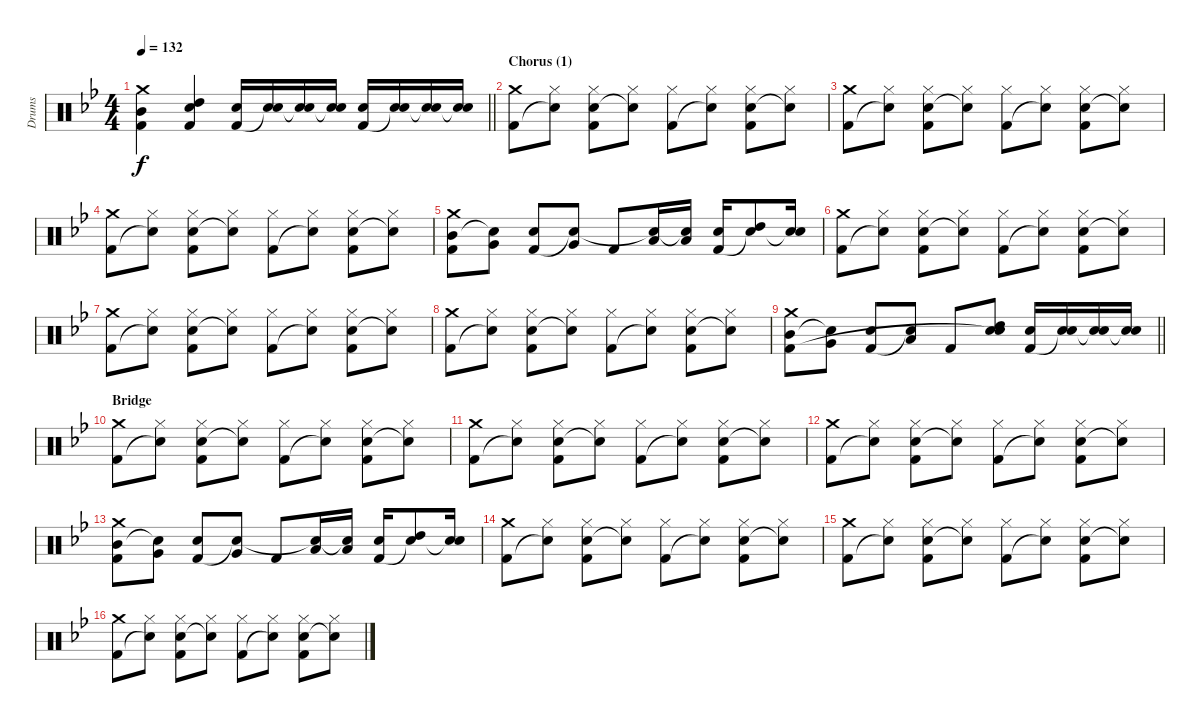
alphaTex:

\track ("Drums" "Drums") {instrument percussion}
\staff {score}
\articulation defaults
\ts (4 4)
\tempo 132
\clef neutral
\barLineRight lightlight
\ks bb
("Crash medium (hit)" "Mid Tom (hit)" "Kick (hit) 2").4{dy f} ("High Tom (hit)" "Electric Snare (hit)" "Kick (hit) 2").4 ("Electric Snare (hit)" "Kick (hit) 2").16 ("Electric Snare (hit)" "Snare (hit)"{t}).16 ("Electric Snare (hit)" "Snare (hit)"{t}).16 ("Electric Snare (hit)" "Snare (hit)"{t}).16 ("Electric Snare (hit)" "Kick (hit) 2").16 ("Electric Snare (hit)" "Snare (hit)"{t}).16 ("Electric Snare (hit)" "Snare (hit)"{t}).16 ("Electric Snare (hit)" "Snare (hit)"{t}).16 |
\section ("" "Chorus (1)")
("Crash medium (hit)" "Kick (hit) 2").8 ("Hi-Hat (closed)" "Snare (hit)"{t}).8 ("Hi-Hat (closed)" "Electric Snare (hit)" "Kick (hit) 2").8 ("Hi-Hat (closed)" "Snare (hit)"{t}).8 ("Hi-Hat (closed)" "Kick (hit) 2").8 ("Hi-Hat (closed)" "Snare (hit)"{t}).8 ("Hi-Hat (closed)" "Electric Snare (hit)" "Kick (hit) 2").8 ("Hi-Hat (closed)" "Snare (hit)"{t}).8 |
("Crash medium (hit)" "Kick (hit) 2").8 ("Hi-Hat (closed)" "Snare (hit)"{t}).8 ("Hi-Hat (closed)" "Electric Snare (hit)" "Kick (hit) 2").8 ("Hi-Hat (closed)" "Snare (hit)"{t}).8 ("Hi-Hat (closed)" "Kick (hit) 2").8 ("Hi-Hat (closed)" "Snare (hit)"{t}).8 ("Hi-Hat (closed)" "Electric Snare (hit)" "Kick (hit) 2").8 ("Hi-Hat (closed)" "Snare (hit)"{t}).8 |
("Crash medium (hit)" "Kick (hit) 2").8 ("Hi-Hat (closed)" "Snare (hit)"{t}).8 ("Hi-Hat (closed)" "Electric Snare (hit)" "Kick (hit) 2").8 ("Hi-Hat (closed)" "Snare (hit)"{t}).8 ("Hi-Hat (closed)" "Kick (hit) 2").8 ("Hi-Hat (closed)" "Snare (hit)"{t}).8 ("Hi-Hat (closed)" "Electric Snare (hit)" "Kick (hit) 2").8 ("Hi-Hat (closed)" "Snare (hit)"{t}).8 |
("Crash medium (hit)" "Mid Tom (hit)" "Kick (hit) 2").8 ("Very Low Tom (hit)" "Snare (hit)"{t}).8 ("Electric Snare (hit)" "Kick (hit) 2").8 ("Very Low Tom (hit)" "Snare (hit)"{t}).8 "Kick (hit) 2".8 ("Low Floor Tom (hit)" "Snare (hit)"{t}).16 ("Low Floor Tom (hit)" "Snare (hit)"{t}).16 ("Electric Snare (hit)" "Kick (hit) 2").16 ("High Tom (hit)" "Snare (hit)"{t}).8 ("Electric Snare (hit)" "Snare (hit)"{t}).16 |
("Crash medium (hit)" "Kick (hit) 2").8 ("Hi-Hat (closed)" "Snare (hit)"{t}).8 ("Hi-Hat (closed)" "Electric Snare (hit)" "Kick (hit) 2").8 ("Hi-Hat (closed)" "Snare (hit)"{t}).8 ("Hi-Hat (closed)" "Kick (hit) 2").8 ("Hi-Hat (closed)" "Snare (hit)"{t}).8 ("Hi-Hat (closed)" "Electric Snare (hit)" "Kick (hit) 2").8 ("Hi-Hat (closed)" "Snare (hit)"{t}).8 |
("Crash medium (hit)" "Kick (hit) 2").8 ("Hi-Hat (closed)" "Snare (hit)"{t}).8 ("Hi-Hat (closed)" "Electric Snare (hit)" "Kick (hit) 2").8 ("Hi-Hat (closed)" "Snare (hit)"{t}).8 ("Hi-Hat (closed)" "Kick (hit) 2").8 ("Hi-Hat (closed)" "Snare (hit)"{t}).8 ("Hi-Hat (closed)" "Electric Snare (hit)" "Kick (hit) 2").8 ("Hi-Hat (closed)" "Snare (hit)"{t}).8 |
("Crash medium (hit)" "Kick (hit) 2").8 ("Hi-Hat (closed)" "Snare (hit)"{t}).8 ("Hi-Hat (closed)" "Electric Snare (hit)" "Kick (hit) 2").8 ("Hi-Hat (closed)" "Snare (hit)"{t}).8 ("Hi-Hat (closed)" "Kick (hit) 2").8 ("Hi-Hat (closed)" "Snare (hit)"{t}).8 ("Hi-Hat (closed)" "Electric Snare (hit)" "Kick (hit) 2").8 ("Hi-Hat (closed)" "Snare (hit)"{t}).8 |
\barLineRight lightlight
("Crash medium (hit)" "Mid Tom (hit)" "Kick (hit) 2").8 ("Very Low Tom (hit)" "Snare (hit)"{t}).8 ("Electric Snare (hit)" "Kick (hit) 2").8 ("Low Floor Tom (hit)" "Snare (hit)"{t}).8 "Kick (hit) 2".8 ("High Tom (hit)" "Electric Snare (hit)" "Snare (hit)"{t}).8 ("Electric Snare (hit)" "Kick (hit) 2").16 ("Electric Snare (hit)" "Snare (hit)"{t}).16 ("Electric Snare (hit)" "Snare (hit)"{t}).16 ("Electric Snare (hit)" "Snare (hit)"{t}).16 |
\section ("" "Bridge")
("Crash medium (hit)" "Kick (hit) 2").8 ("Hi-Hat (closed)" "Snare (hit)"{t}).8 ("Hi-Hat (closed)" "Electric Snare (hit)" "Kick (hit) 2").8 ("Hi-Hat (closed)" "Snare (hit)"{t}).8 ("Hi-Hat (closed)" "Kick (hit) 2").8 ("Hi-Hat (closed)" "Snare (hit)"{t}).8 ("Hi-Hat (closed)" "Electric Snare (hit)" "Kick (hit) 2").8 ("Hi-Hat (closed)" "Snare (hit)"{t}).8 |
("Crash medium (hit)" "Kick (hit) 2").8 ("Hi-Hat (closed)" "Snare (hit)"{t}).8 ("Hi-Hat (closed)" "Electric Snare (hit)" "Kick (hit) 2").8 ("Hi-Hat (closed)" "Snare (hit)"{t}).8 ("Hi-Hat (closed)" "Kick (hit) 2").8 ("Hi-Hat (closed)" "Snare (hit)"{t}).8 ("Hi-Hat (closed)" "Electric Snare (hit)" "Kick (hit) 2").8 ("Hi-Hat (closed)" "Snare (hit)"{t}).8 |
("Crash medium (hit)" "Kick (hit) 2").8 ("Hi-Hat (closed)" "Snare (hit)"{t}).8 ("Hi-Hat (closed)" "Electric Snare (hit)" "Kick (hit) 2").8 ("Hi-Hat (closed)" "Snare (hit)"{t}).8 ("Hi-Hat (closed)" "Kick (hit) 2").8 ("Hi-Hat (closed)" "Snare (hit)"{t}).8 ("Hi-Hat (closed)" "Electric Snare (hit)" "Kick (hit) 2").8 ("Hi-Hat (closed)" "Snare (hit)"{t}).8 |
("Crash medium (hit)" "Mid Tom (hit)" "Kick (hit) 2").8 ("Very Low Tom (hit)" "Snare (hit)"{t}).8 ("Electric Snare (hit)" "Kick (hit) 2").8 ("Very Low Tom (hit)" "Snare (hit)"{t}).8 "Kick (hit) 2".8 ("Low Floor Tom (hit)" "Snare (hit)"{t}).16 ("Low Floor Tom (hit)" "Snare (hit)"{t}).16 ("Electric Snare (hit)" "Kick (hit) 2").16 ("High Tom (hit)" "Snare (hit)"{t}).8 ("Electric Snare (hit)" "Snare (hit)"{t}).16 |
("Crash medium (hit)" "Kick (hit) 2").8 ("Hi-Hat (closed)" "Snare (hit)"{t}).8 ("Hi-Hat (closed)" "Electric Snare (hit)" "Kick (hit) 2").8 ("Hi-Hat (closed)" "Snare (hit)"{t}).8 ("Hi-Hat (closed)" "Kick (hit) 2").8 ("Hi-Hat (closed)" "Snare (hit)"{t}).8 ("Hi-Hat (closed)" "Electric Snare (hit)" "Kick (hit) 2").8 ("Hi-Hat (closed)" "Snare (hit)"{t}).8 |
("Crash medium (hit)" "Kick (hit) 2").8 ("Hi-Hat (closed)" "Snare (hit)"{t}).8 ("Hi-Hat (closed)" "Electric Snare (hit)" "Kick (hit) 2").8 ("Hi-Hat (closed)" "Snare (hit)"{t}).8 ("Hi-Hat (closed)" "Kick (hit) 2").8 ("Hi-Hat (closed)" "Snare (hit)"{t}).8 ("Hi-Hat (closed)" "Electric Snare (hit)" "Kick (hit) 2").8 ("Hi-Hat (closed)" "Snare (hit)"{t}).8 |
("Crash medium (hit)" "Kick (hit) 2").8 ("Hi-Hat (closed)" "Snare (hit)"{t}).8 ("Hi-Hat (closed)" "Electric Snare (hit)" "Kick (hit) 2").8 ("Hi-Hat (closed)" "Snare (hit)"{t}).8 ("Hi-Hat (closed)" "Kick (hit) 2").8 ("Hi-Hat (closed)" "Snare (hit)"{t}).8 ("Hi-Hat (closed)" "Electric Snare (hit)" "Kick (hit) 2").8 ("Hi-Hat (closed)" "Snare (hit)"{t}).8
